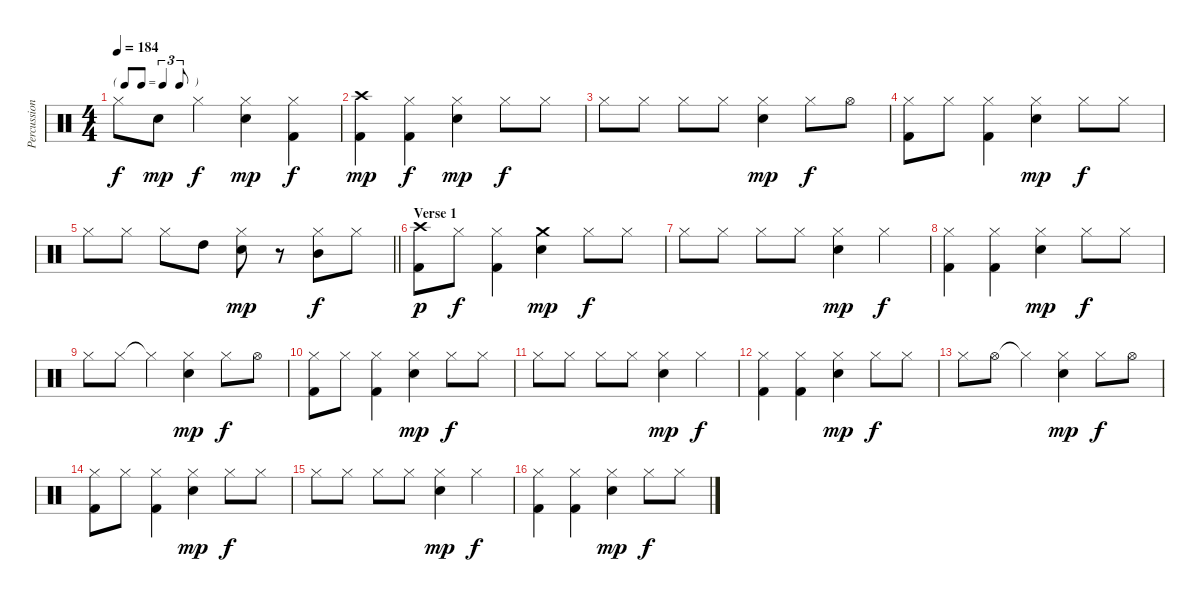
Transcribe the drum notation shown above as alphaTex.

\track ("Percussion" "Percussion") {instrument percussion}
\staff {score}
\articulation defaults
\ts (4 4)
\tf triplet8th
\tempo 184
\clef neutral
\ks c "Hi-Hat (closed)".8{dy f} "Electric Snare (hit)".8{dy mp} "Hi-Hat (closed)".4{dy f}
("Hi-Hat (closed)" "Electric Snare (hit)").4{dy mp} ("Hi-Hat (closed)" "Kick (hit) 2").4{dy f} |
("Crash high (hit)" "Kick (hit) 2").4{dy mp} ("Hi-Hat (closed)" "Kick (hit) 2").4{dy f} ("Hi-Hat (closed)" "Electric Snare (hit)").4{dy mp} "Hi-Hat (closed)".8{dy f} "Hi-Hat (closed)".8 |
"Hi-Hat (closed)".8 "Hi-Hat (closed)".8 "Hi-Hat (closed)".8 "Hi-Hat (closed)".8 ("Hi-Hat (closed)" "Electric Snare (hit)").4{dy mp} "Hi-Hat (closed)".8{dy f} "Hi-Hat (open)".8 |
("Hi-Hat (closed)" "Kick (hit) 2").8 "Hi-Hat (closed)".8 ("Hi-Hat (closed)" "Kick (hit) 2").4 ("Hi-Hat (closed)" "Electric Snare (hit)").4{dy mp} "Hi-Hat (closed)".8{dy f} "Hi-Hat (closed)".8 |
\barLineRight lightlight "Hi-Hat (closed)".8 "Hi-Hat (closed)".8 "Hi-Hat (closed)".8 "High Tom (hit)".8
("Hi-Hat (closed)" "Electric Snare (hit)").8{dy mp} r.8 ("Hi-Hat (closed)" "Mid Tom (hit)").8{dy f} "Hi-Hat (closed)".8 |
\section ("" "Verse 1")
("Crash high (hit)" "Kick (hit) 2").8{dy p} "Hi-Hat (closed)".8{dy f} ("Hi-Hat (closed)" "Kick (hit) 2").4 ("Crash medium (hit)" "Electric Snare (hit)").4{dy mp} "Hi-Hat (closed)".8{dy f} "Hi-Hat (closed)".8 |
"Hi-Hat (closed)".8 "Hi-Hat (closed)".8 "Hi-Hat (closed)".8 "Hi-Hat (closed)".8 ("Hi-Hat (closed)" "Electric Snare (hit)").4{dy mp} "Hi-Hat (closed)".4{dy f} |
("Hi-Hat (closed)" "Kick (hit) 2").4 ("Hi-Hat (closed)" "Kick (hit) 2").4 ("Hi-Hat (closed)" "Electric Snare (hit)").4{dy mp} "Hi-Hat (closed)".8{dy f} "Hi-Hat (closed)".8 |
"Hi-Hat (closed)".8 "Hi-Hat (closed)".8 "Hi-Hat (closed)"{t}.4 ("Hi-Hat (closed)" "Electric Snare (hit)").4{dy mp} "Hi-Hat (closed)".8{dy f} "Hi-Hat (open)".8 |
("Hi-Hat (closed)" "Kick (hit) 2").8 "Hi-Hat (closed)".8 ("Hi-Hat (closed)" "Kick (hit) 2").4 ("Hi-Hat (closed)" "Electric Snare (hit)").4{dy mp} "Hi-Hat (closed)".8{dy f} "Hi-Hat (closed)".8 |
"Hi-Hat (closed)".8 "Hi-Hat (closed)".8 "Hi-Hat (closed)".8 "Hi-Hat (closed)".8 ("Hi-Hat (closed)" "Electric Snare (hit)").4{dy mp} "Hi-Hat (closed)".4{dy f} |
("Hi-Hat (closed)" "Kick (hit) 2").4 ("Hi-Hat (closed)" "Kick (hit) 2").4 ("Hi-Hat (closed)" "Electric Snare (hit)").4{dy mp} "Hi-Hat (closed)".8{dy f} "Hi-Hat (closed)".8 |
"Hi-Hat (closed)".8 "Hi-Hat (open)".8 "Hi-Hat (closed)"{t}.4 ("Hi-Hat (closed)" "Electric Snare (hit)").4{dy mp} "Hi-Hat (closed)".8{dy f} "Hi-Hat (open)".8 |
("Hi-Hat (closed)" "Kick (hit) 2").8 "Hi-Hat (closed)".8 ("Hi-Hat (closed)" "Kick (hit) 2").4 ("Hi-Hat (closed)" "Electric Snare (hit)").4{dy mp} "Hi-Hat (closed)".8{dy f} "Hi-Hat (closed)".8 |
"Hi-Hat (closed)".8 "Hi-Hat (closed)".8 "Hi-Hat (closed)".8 "Hi-Hat (closed)".8 ("Hi-Hat (closed)" "Electric Snare (hit)").4{dy mp} "Hi-Hat (closed)".4{dy f} |
("Hi-Hat (closed)" "Kick (hit) 2").4 ("Hi-Hat (closed)" "Kick (hit) 2").4 ("Hi-Hat (closed)" "Electric Snare (hit)").4{dy mp} "Hi-Hat (closed)".8{dy f} "Hi-Hat (closed)".8
